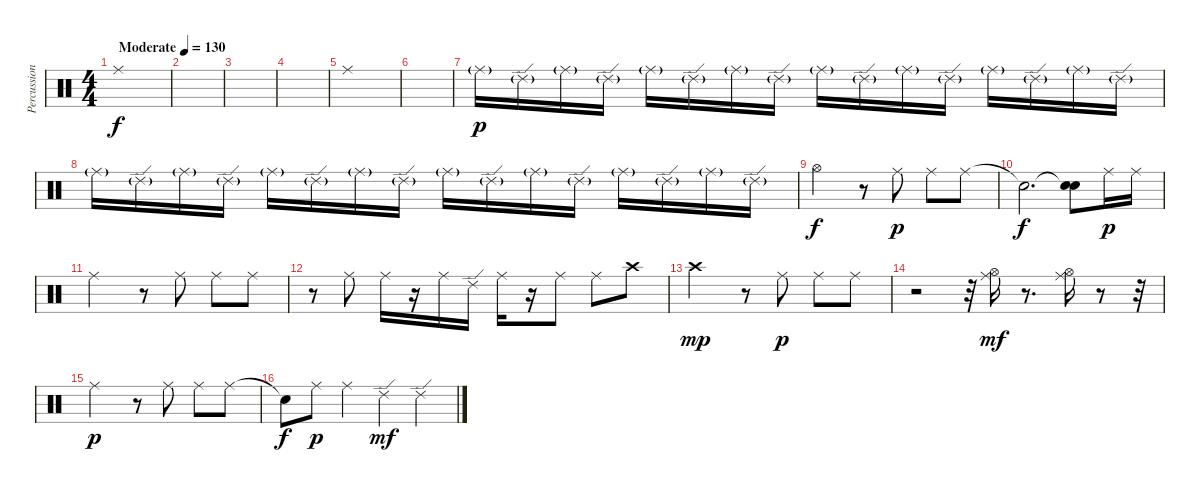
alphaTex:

\track ("Percussion" "Percussion") {instrument percussion}
\staff {score}
\articulation defaults
\ts (4 4)
\tempo (130 "Moderate")
\clef neutral
\ks c "Ride (middle)".1{dy f}
|
|
|
|
"Ride (middle)".1 |
|
"Ride (middle)"{g}.16{dy p} "Ride (edge) 2"{g}.16 "Ride (middle)"{g}.16 "Ride (edge) 2"{g}.16 "Ride (middle)"{g}.16 "Ride (edge) 2"{g}.16 "Ride (middle)"{g}.16 "Ride (edge) 2"{g}.16 "Ride (middle)"{g}.16 "Ride (edge) 2"{g}.16 "Ride (middle)"{g}.16 "Ride (edge) 2"{g}.16 "Ride (middle)"{g}.16 "Ride (edge) 2"{g}.16 "Ride (middle)"{g}.16 "Ride (edge) 2"{g}.16 |
"Ride (middle)"{g}.16 "Ride (edge) 2"{g}.16 "Ride (middle)"{g}.16 "Ride (edge) 2"{g}.16 "Ride (middle)"{g}.16 "Ride (edge) 2"{g}.16 "Ride (middle)"{g}.16 "Ride (edge) 2"{g}.16 "Ride (middle)"{g}.16 "Ride (edge) 2"{g}.16 "Ride (middle)"{g}.16 "Ride (edge) 2"{g}.16 "Ride (middle)"{g}.16 "Ride (edge) 2"{g}.16 "Ride (middle)"{g}.16 "Ride (edge) 2"{g}.16 |
"Hi-Hat (open)".2{dy f} r.8 "Ride (middle)".8{dy p} "Ride (middle)".8 "Ride (middle)".8 |
"Snare (hit)"{t}.2{d dy f} ("Snare (hit)"{t} "Snare (hit)").8 "Ride (middle)".16{dy p} "Ride (middle)".16 |
"Ride (middle)".2 r.8 "Ride (middle)".8 "Ride (middle)".8 "Ride (middle)".8 |
r.8 "Ride (middle)".8 "Ride (middle)".16 r.16 "Ride (middle)".16 "Ride (edge) 2".16 "Ride (middle)".16 r.16 "Ride (middle)".8 "Ride (middle)".8 "Crash high (hit)".8 |
"Crash high (hit)".2{dy mp} r.8 "Ride (middle)".8{dy p} "Ride (middle)".8 "Ride (middle)".8 |
r.2 r.32 ("Ride (middle)" "Hi-Hat (open)").16{dy mf} r.8{d} ("Ride (middle)" "Hi-Hat (open)").16 r.8 r.32 |
"Ride (middle)".2{dy p} r.8 "Ride (middle)".8 "Ride (middle)".8 "Ride (middle)".8 |
"Snare (hit)"{t}.8{dy f} "Ride (middle)".8{dy p} "Ride (middle)".4 "Ride (edge) 2".4{dy mf} "Ride (edge) 2".4
